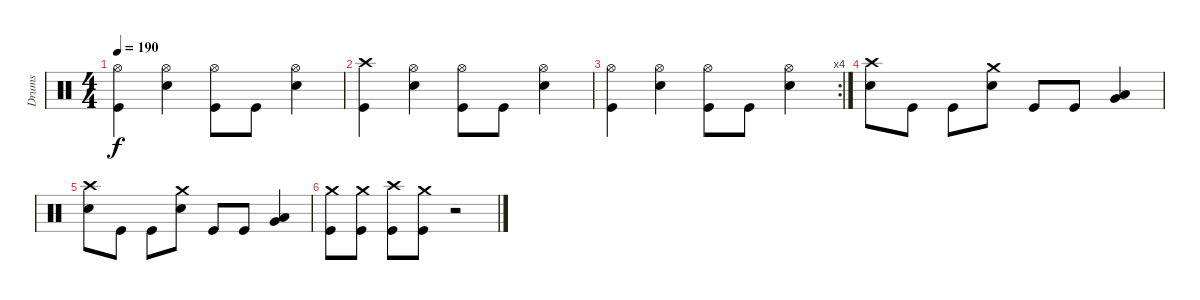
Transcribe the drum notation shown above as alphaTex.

\track ("Drums" "Drums") {instrument percussion}
\staff {score}
\articulation defaults
\ts (4 4)
\tempo 190
\clef neutral
\ks c
("Hi-Hat (open)" "Kick (hit)").4{dy f} ("Hi-Hat (open)" "Snare (hit) 2").4 ("Hi-Hat (open)" "Kick (hit)").8 "Kick (hit)".8 ("Hi-Hat (open)" "Snare (hit) 2").4 |
("Crash high (hit)" "Kick (hit)").4 ("Hi-Hat (open)" "Snare (hit) 2").4 ("Hi-Hat (open)" "Kick (hit)").8 "Kick (hit)".8 ("Hi-Hat (open)" "Snare (hit) 2").4 |
\rc 4
("Hi-Hat (open)" "Kick (hit)").4 ("Hi-Hat (open)" "Snare (hit) 2").4 ("Hi-Hat (open)" "Kick (hit)").8 "Kick (hit)".8 ("Hi-Hat (open)" "Snare (hit) 2").4 |
("Crash high (hit)" "Snare (hit) 2").8 "Kick (hit)".8 "Kick (hit)".8 ("Crash medium (hit)" "Snare (hit) 2").8 "Kick (hit)".8 "Kick (hit)".8 ("Very Low Tom (hit)" "Low Tom (hit)").4 |
("Crash high (hit)" "Snare (hit) 2").8 "Kick (hit)".8 "Kick (hit)".8 ("Crash medium (hit)" "Snare (hit) 2").8 "Kick (hit)".8 "Kick (hit)".8 ("Very Low Tom (hit)" "Low Tom (hit)").4 |
("Crash medium (hit)" "Kick (hit)").8 ("Crash medium (hit)" "Kick (hit)").8 ("Crash high (hit)" "Kick (hit)").8 ("Crash medium (hit)" "Kick (hit)").8 r.2
